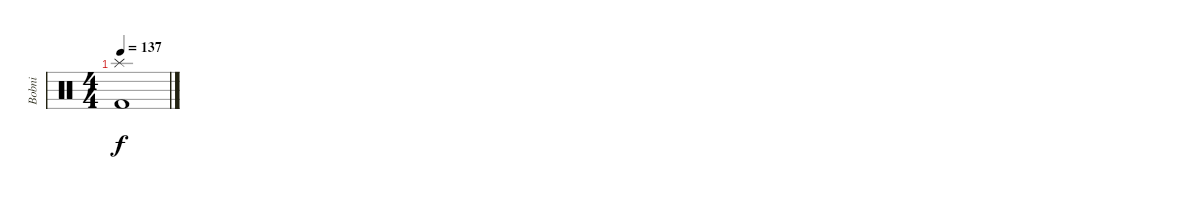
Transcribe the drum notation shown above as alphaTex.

\track ("Bobni" "Bobni") {instrument percussion}
\staff {score}
\articulation defaults
\ts (4 4)
\tempo 137
\clef neutral
\ks c
("Splash (hit)" "Kick (hit) 2").1{dy f}
